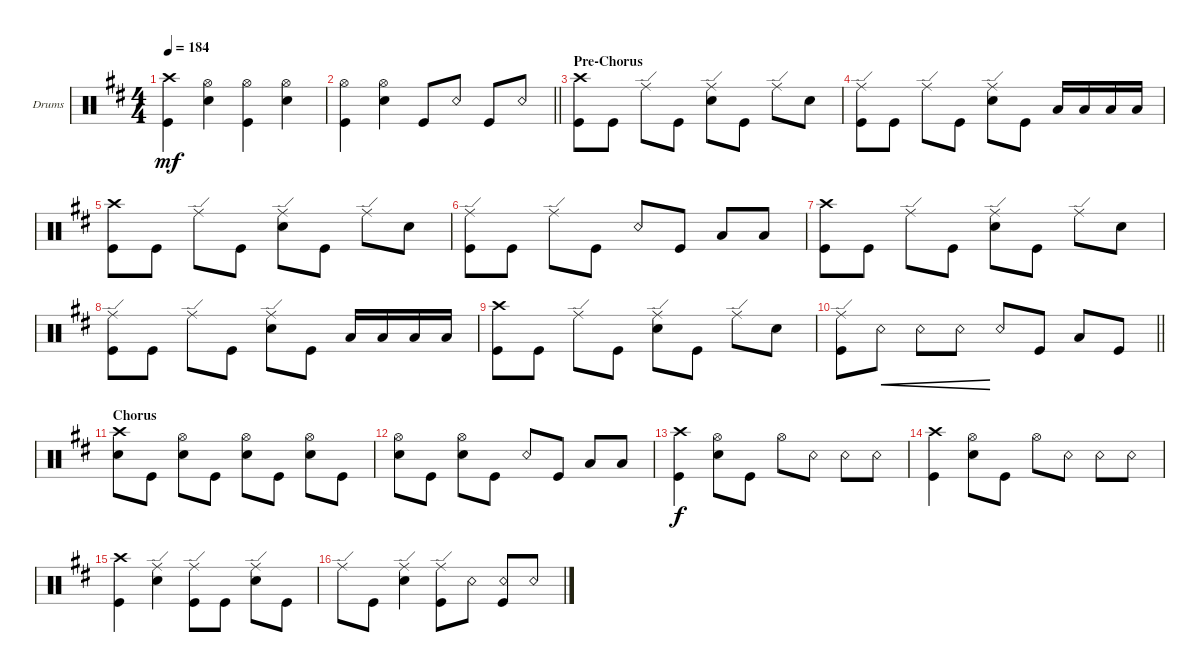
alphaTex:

\defaultSystemsLayout 4
\bracketExtendMode groupsimilarinstruments
\firstSystemTrackNameOrientation horizontal
\otherSystemsTrackNameOrientation horizontal
\track ("Drums" "Drums") {instrument percussion}
\staff {score}
\articulation defaults
\ts (4 4)
\tempo 184
\clef neutral
\ks d
("Kick (hit)" "Crash high (hit)").4{dy mf} ("Hi-Hat (open)" "Snare (hit) 2").4 ("Kick (hit)" "Hi-Hat (open)").4 ("Hi-Hat (open)" "Snare (hit) 2").4 |
\barLineRight lightlight
("Kick (hit)" "Hi-Hat (open)").4 ("Hi-Hat (open)" "Snare (hit) 2").4 "Kick (hit)".8 "Snare (rim shot)".8 "Kick (hit)".8 "Snare (rim shot)".8 |
\section ("" "Pre-Chorus")
("Kick (hit)" "Crash high (hit)").8 "Kick (hit)".8 "Ride (edge)".8 "Kick (hit)".8 ("Ride (edge)" "Snare (hit) 2").8 "Kick (hit)".8 "Ride (edge)".8 "Snare (hit) 2".8 |
("Kick (hit)" "Ride (edge)").8 "Kick (hit)".8 "Ride (edge)".8 "Kick (hit)".8 ("Ride (edge)" "Snare (hit) 2").8 "Kick (hit)".8 "Low Tom (hit)".16 "Low Tom (hit)".16 "Low Tom (hit)".16 "Low Tom (hit)".16 |
("Kick (hit)" "Crash high (hit)").8 "Kick (hit)".8 "Ride (edge)".8 "Kick (hit)".8 ("Ride (edge)" "Snare (hit) 2").8 "Kick (hit)".8 "Ride (edge)".8 "Snare (hit) 2".8 |
("Kick (hit)" "Ride (edge)").8 "Kick (hit)".8 "Ride (edge)".8 "Kick (hit)".8 "Snare (rim shot)".8 "Kick (hit)".8 "Low Tom (hit)".8 "Low Tom (hit)".8 |
("Kick (hit)" "Crash high (hit)").8 "Kick (hit)".8 "Ride (edge)".8 "Kick (hit)".8 ("Ride (edge)" "Snare (hit) 2").8 "Kick (hit)".8 "Ride (edge)".8 "Snare (hit) 2".8 |
("Kick (hit)" "Ride (edge)").8 "Kick (hit)".8 "Ride (edge)".8 "Kick (hit)".8 ("Ride (edge)" "Snare (hit) 2").8 "Kick (hit)".8 "Low Tom (hit)".16 "Low Tom (hit)".16 "Low Tom (hit)".16 "Low Tom (hit)".16 |
("Kick (hit)" "Crash high (hit)").8 "Kick (hit)".8 "Ride (edge)".8 "Kick (hit)".8 ("Ride (edge)" "Snare (hit) 2").8 "Kick (hit)".8 "Ride (edge)".8 "Snare (hit) 2".8 |
\barLineRight lightlight
("Kick (hit)" "Ride (edge)").8 "Snare (rim shot)".8{cre} "Snare (rim shot)".8{cre} "Snare (rim shot)".8{cre} "Snare (rim shot)".8 "Kick (hit)".8 "Low Tom (hit)".8 "Kick (hit)".8 |
\section ("" "Chorus")
("Crash high (hit)" "Snare (hit) 2").8 "Kick (hit)".8 ("Snare (hit) 2" "Hi-Hat (open)").8 "Kick (hit)".8 ("Snare (hit) 2" "Hi-Hat (open)").8 "Kick (hit)".8 ("Snare (hit) 2" "Hi-Hat (open)").8 "Kick (hit)".8 |
("Snare (hit) 2" "Hi-Hat (open)").8 "Kick (hit)".8 ("Snare (hit) 2" "Hi-Hat (open)").8 "Kick (hit)".8 "Snare (rim shot)".8 "Kick (hit)".8 "Low Tom (hit)".8 "Low Tom (hit)".8 |
("Kick (hit)" "Crash high (hit)").4{dy f} ("Hi-Hat (open)" "Snare (hit) 2").8 "Kick (hit)".8 "Hi-Hat (open)".8 "Snare (rim shot)".8 "Snare (rim shot)".8 "Snare (rim shot)".8 |
("Kick (hit)" "Crash high (hit)").4 ("Hi-Hat (open)" "Snare (hit) 2").8 "Kick (hit)".8 "Hi-Hat (open)".8 "Snare (rim shot)".8 "Snare (rim shot)".8 "Snare (rim shot)".8 |
("Kick (hit)" "Crash high (hit)").4 ("Ride (edge)" "Snare (hit) 2").4 ("Kick (hit)" "Ride (edge)").8 "Kick (hit)".8 ("Snare (hit) 2" "Ride (edge)").8 "Kick (hit)".8 |
"Ride (edge)".8 "Kick (hit)".8 ("Snare (hit) 2" "Ride (edge)").4 ("Kick (hit)" "Ride (edge)").8 "Snare (rim shot)".8 ("Snare (rim shot)" "Kick (hit)").8 "Snare (rim shot)".8
